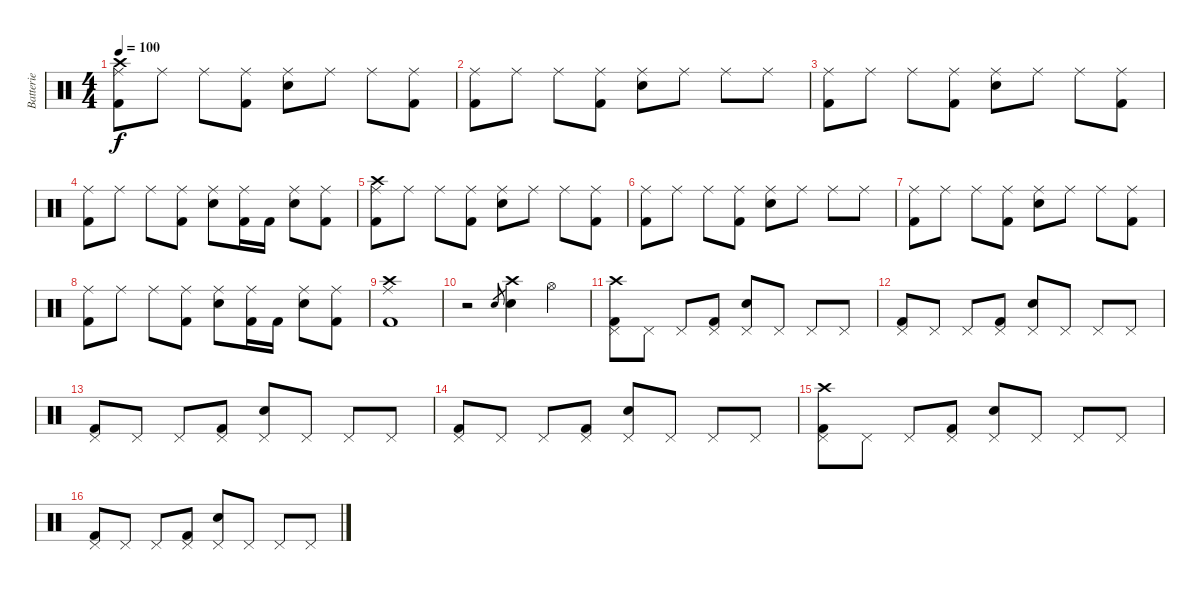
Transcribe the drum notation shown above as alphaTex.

\track ("Batterie" "Batterie") {instrument percussion}
\staff {score}
\articulation defaults
\ts (4 4)
\tempo 100
\clef neutral
\ks c
("Crash high (hit)" "Ride (middle)" "Kick (hit) 2").8{dy f} "Ride (middle)".8 "Ride (middle)".8 ("Ride (middle)" "Kick (hit) 2").8 ("Ride (middle)" "Electric Snare (hit)").8 "Ride (middle)".8 "Ride (middle)".8 ("Ride (middle)" "Kick (hit) 2").8 |
("Ride (middle)" "Kick (hit) 2").8 "Ride (middle)".8 "Ride (middle)".8 ("Ride (middle)" "Kick (hit) 2").8 ("Ride (middle)" "Electric Snare (hit)").8 "Ride (middle)".8 "Ride (middle)".8 "Ride (middle)".8 |
("Ride (middle)" "Kick (hit) 2").8 "Ride (middle)".8 "Ride (middle)".8 ("Ride (middle)" "Kick (hit) 2").8 ("Ride (middle)" "Electric Snare (hit)").8 "Ride (middle)".8 "Ride (middle)".8 ("Ride (middle)" "Kick (hit) 2").8 |
("Ride (middle)" "Kick (hit) 2").8 "Ride (middle)".8 "Ride (middle)".8 ("Ride (middle)" "Kick (hit) 2").8 ("Ride (middle)" "Electric Snare (hit)").8 ("Ride (middle)" "Kick (hit) 2").16 "Kick (hit) 2".16 ("Ride (middle)" "Electric Snare (hit)").8 ("Ride (middle)" "Kick (hit) 2").8 |
("Crash high (hit)" "Ride (middle)" "Kick (hit) 2").8 "Ride (middle)".8 "Ride (middle)".8 ("Ride (middle)" "Kick (hit) 2").8 ("Ride (middle)" "Electric Snare (hit)").8 "Ride (middle)".8 "Ride (middle)".8 ("Ride (middle)" "Kick (hit) 2").8 |
("Ride (middle)" "Kick (hit) 2").8 "Ride (middle)".8 "Ride (middle)".8 ("Ride (middle)" "Kick (hit) 2").8 ("Ride (middle)" "Electric Snare (hit)").8 "Ride (middle)".8 "Ride (middle)".8 "Ride (middle)".8 |
("Ride (middle)" "Kick (hit) 2").8 "Ride (middle)".8 "Ride (middle)".8 ("Ride (middle)" "Kick (hit) 2").8 ("Ride (middle)" "Electric Snare (hit)").8 "Ride (middle)".8 "Ride (middle)".8 ("Ride (middle)" "Kick (hit) 2").8 |
("Ride (middle)" "Kick (hit) 2").8 "Ride (middle)".8 "Ride (middle)".8 ("Ride (middle)" "Kick (hit) 2").8 ("Ride (middle)" "Electric Snare (hit)").8 ("Ride (middle)" "Kick (hit) 2").16 "Kick (hit) 2".16 ("Ride (middle)" "Electric Snare (hit)").8 ("Ride (middle)" "Kick (hit) 2").8 |
("Crash high (hit)" "Ride (middle)" "Kick (hit) 2").1 |
r.2 "Electric Snare (hit)".8{gr} ("Crash high (hit)" "Electric Snare (hit)").4 "Hi-Hat (open)".4 |
("Crash high (hit)" "Pedal Hi-Hat (hit)" "Kick (hit) 2").8 "Pedal Hi-Hat (hit)".8 "Pedal Hi-Hat (hit)".8 ("Pedal Hi-Hat (hit)" "Kick (hit) 2").8 ("Pedal Hi-Hat (hit)" "Electric Snare (hit)").8 "Pedal Hi-Hat (hit)".8 "Pedal Hi-Hat (hit)".8 "Pedal Hi-Hat (hit)".8 |
("Pedal Hi-Hat (hit)" "Kick (hit) 2").8 "Pedal Hi-Hat (hit)".8 "Pedal Hi-Hat (hit)".8 ("Pedal Hi-Hat (hit)" "Kick (hit) 2").8 ("Pedal Hi-Hat (hit)" "Electric Snare (hit)").8 "Pedal Hi-Hat (hit)".8 "Pedal Hi-Hat (hit)".8 "Pedal Hi-Hat (hit)".8 |
("Pedal Hi-Hat (hit)" "Kick (hit) 2").8 "Pedal Hi-Hat (hit)".8 "Pedal Hi-Hat (hit)".8 ("Pedal Hi-Hat (hit)" "Kick (hit) 2").8 ("Pedal Hi-Hat (hit)" "Electric Snare (hit)").8 "Pedal Hi-Hat (hit)".8 "Pedal Hi-Hat (hit)".8 "Pedal Hi-Hat (hit)".8 |
("Pedal Hi-Hat (hit)" "Kick (hit) 2").8 "Pedal Hi-Hat (hit)".8 "Pedal Hi-Hat (hit)".8 ("Pedal Hi-Hat (hit)" "Kick (hit) 2").8 ("Pedal Hi-Hat (hit)" "Electric Snare (hit)").8 "Pedal Hi-Hat (hit)".8 "Pedal Hi-Hat (hit)".8 "Pedal Hi-Hat (hit)".8 |
("Crash high (hit)" "Pedal Hi-Hat (hit)" "Kick (hit) 2").8 "Pedal Hi-Hat (hit)".8 "Pedal Hi-Hat (hit)".8 ("Pedal Hi-Hat (hit)" "Kick (hit) 2").8 ("Pedal Hi-Hat (hit)" "Electric Snare (hit)").8 "Pedal Hi-Hat (hit)".8 "Pedal Hi-Hat (hit)".8 "Pedal Hi-Hat (hit)".8 |
("Pedal Hi-Hat (hit)" "Kick (hit) 2").8 "Pedal Hi-Hat (hit)".8 "Pedal Hi-Hat (hit)".8 ("Pedal Hi-Hat (hit)" "Kick (hit) 2").8 ("Pedal Hi-Hat (hit)" "Electric Snare (hit)").8 "Pedal Hi-Hat (hit)".8 "Pedal Hi-Hat (hit)".8 "Pedal Hi-Hat (hit)".8
